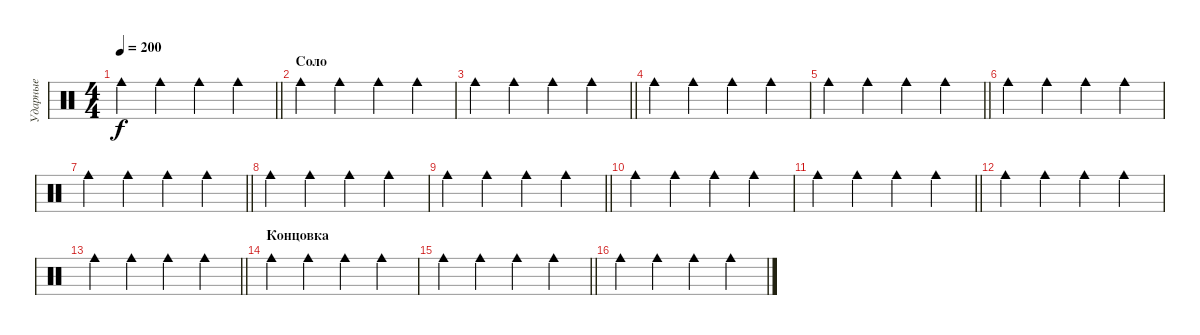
\track ("Ударные" "Ударные") {instrument percussion}
\staff {score}
\articulation defaults
\ts (4 4)
\tempo 200
\clef neutral
\barLineRight lightlight
\ks c "Cowbell medium (hit)".4{dy f} "Cowbell medium (hit)".4 "Cowbell medium (hit)".4 "Cowbell medium (hit)".4
|
\section ("" "Соло")
"Cowbell medium (hit)".4 "Cowbell medium (hit)".4 "Cowbell medium (hit)".4 "Cowbell medium (hit)".4 |
\barLineRight lightlight "Cowbell medium (hit)".4 "Cowbell medium (hit)".4 "Cowbell medium (hit)".4 "Cowbell medium (hit)".4
|
"Cowbell medium (hit)".4 "Cowbell medium (hit)".4 "Cowbell medium (hit)".4 "Cowbell medium (hit)".4 |
\barLineRight lightlight "Cowbell medium (hit)".4 "Cowbell medium (hit)".4 "Cowbell medium (hit)".4 "Cowbell medium (hit)".4
|
"Cowbell medium (hit)".4 "Cowbell medium (hit)".4 "Cowbell medium (hit)".4 "Cowbell medium (hit)".4 |
\barLineRight lightlight "Cowbell medium (hit)".4 "Cowbell medium (hit)".4 "Cowbell medium (hit)".4 "Cowbell medium (hit)".4
|
"Cowbell medium (hit)".4 "Cowbell medium (hit)".4 "Cowbell medium (hit)".4 "Cowbell medium (hit)".4 |
\barLineRight lightlight "Cowbell medium (hit)".4 "Cowbell medium (hit)".4 "Cowbell medium (hit)".4 "Cowbell medium (hit)".4
|
"Cowbell medium (hit)".4 "Cowbell medium (hit)".4 "Cowbell medium (hit)".4 "Cowbell medium (hit)".4 |
\barLineRight lightlight "Cowbell medium (hit)".4 "Cowbell medium (hit)".4 "Cowbell medium (hit)".4 "Cowbell medium (hit)".4
|
"Cowbell medium (hit)".4 "Cowbell medium (hit)".4 "Cowbell medium (hit)".4 "Cowbell medium (hit)".4 |
\barLineRight lightlight "Cowbell medium (hit)".4 "Cowbell medium (hit)".4 "Cowbell medium (hit)".4 "Cowbell medium (hit)".4
|
\section ("" "Концовка")
"Cowbell medium (hit)".4 "Cowbell medium (hit)".4 "Cowbell medium (hit)".4 "Cowbell medium (hit)".4 |
\barLineRight lightlight "Cowbell medium (hit)".4 "Cowbell medium (hit)".4 "Cowbell medium (hit)".4 "Cowbell medium (hit)".4
|
"Cowbell medium (hit)".4 "Cowbell medium (hit)".4 "Cowbell medium (hit)".4 "Cowbell medium (hit)".4
